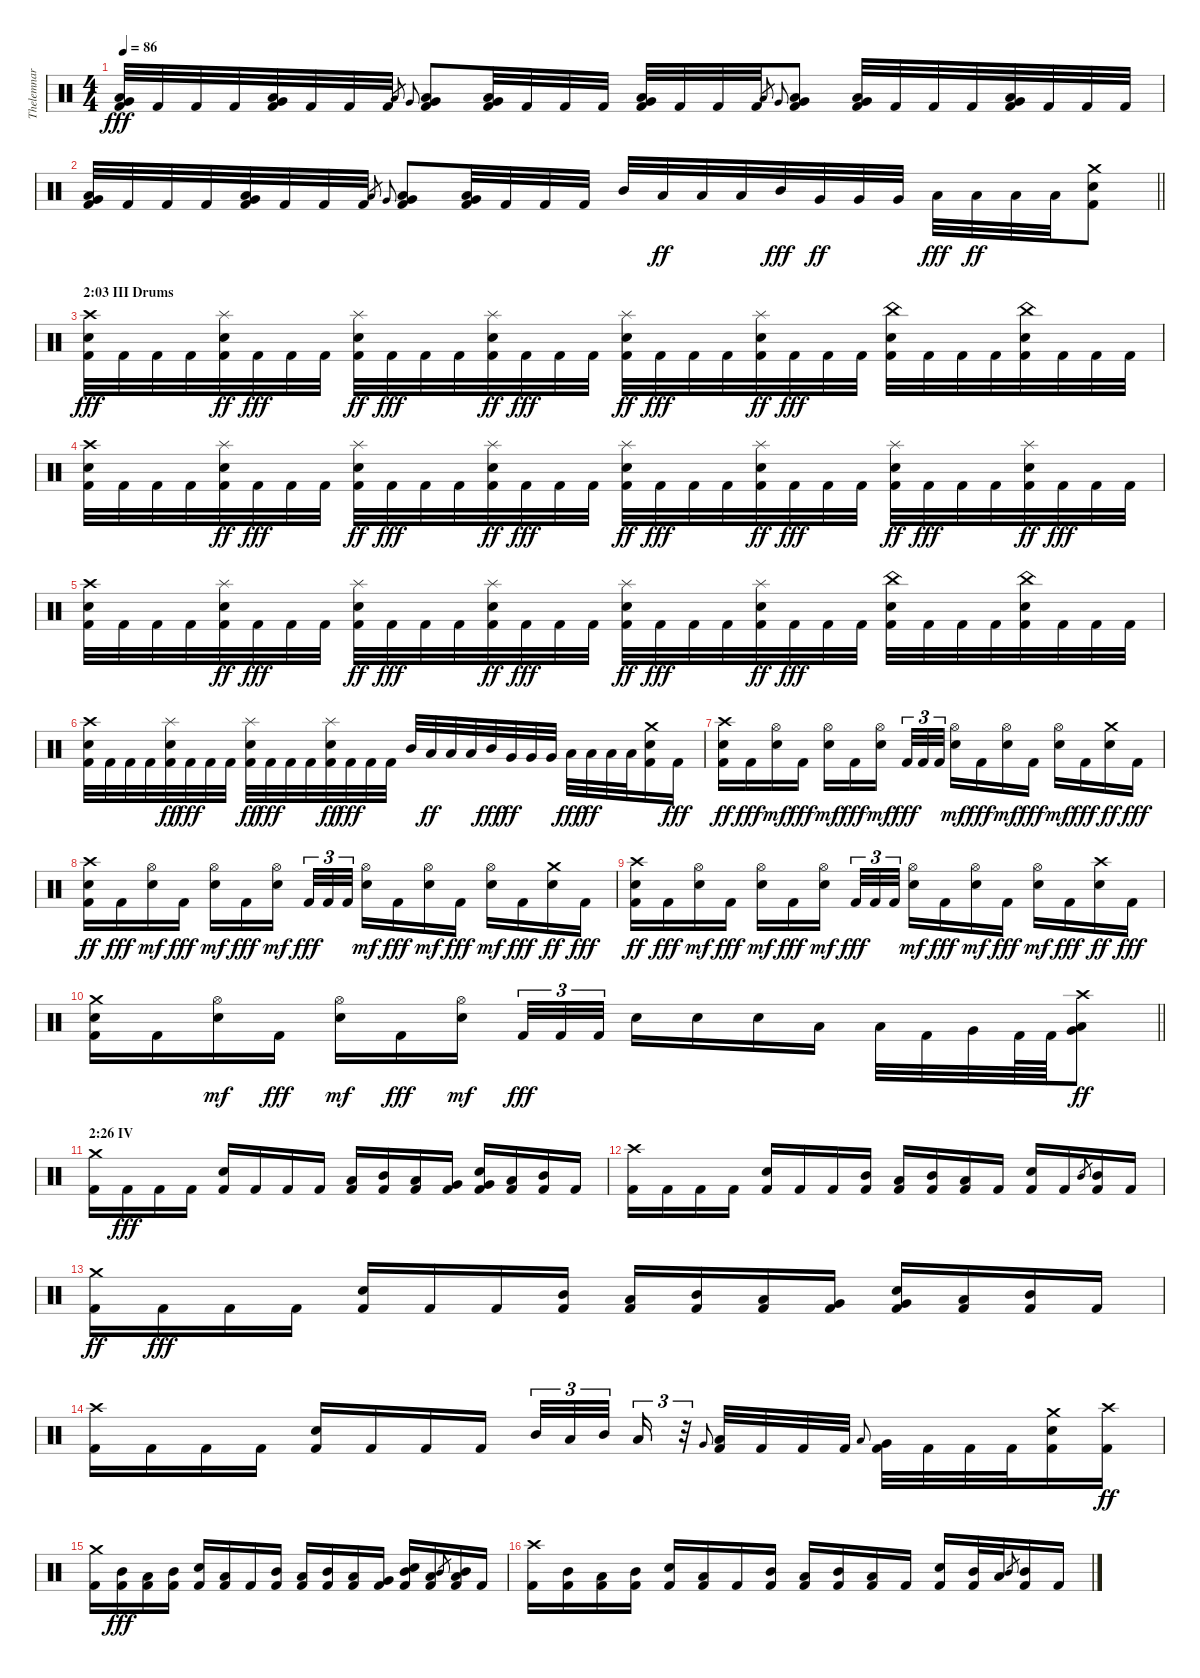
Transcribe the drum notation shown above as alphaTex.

\track ("Thelemnar (Drums)" "Thelemnar ") {instrument percussion}
\staff {score}
\articulation defaults
\ts (4 4)
\tempo 86
\clef neutral
\ks c
("Kick (hit) 2" "Low Floor Tom (hit)" "Very Low Tom (hit)").32{dy fff} "Kick (hit) 2".32 "Kick (hit) 2".32 "Kick (hit) 2".32 ("Kick (hit) 2" "Low Floor Tom (hit)" "Very Low Tom (hit)").32 "Kick (hit) 2".32 "Kick (hit) 2".32 "Kick (hit) 2".32 "Low Tom (hit)".16{gr} "Very Low Tom (hit)".16{gr onbeat} ("Kick (hit) 2" "Low Tom (hit)" "Very Low Tom (hit)").8 ("Kick (hit) 2" "Low Floor Tom (hit)" "Very Low Tom (hit)").32 "Kick (hit) 2".32 "Kick (hit) 2".32 "Kick (hit) 2".32 ("Kick (hit) 2" "Low Floor Tom (hit)" "Very Low Tom (hit)").32 "Kick (hit) 2".32 "Kick (hit) 2".32 "Kick (hit) 2".32 "Low Tom (hit)".16{gr} "Very Low Tom (hit)".16{gr onbeat} ("Kick (hit) 2" "Low Tom (hit)" "Very Low Tom (hit)").8 ("Kick (hit) 2" "Low Floor Tom (hit)" "Very Low Tom (hit)").32 "Kick (hit) 2".32 "Kick (hit) 2".32 "Kick (hit) 2".32 ("Kick (hit) 2" "Low Tom (hit)" "Very Low Tom (hit)").32 "Kick (hit) 2".32 "Kick (hit) 2".32 "Kick (hit) 2".32 |
\barLineRight lightlight
("Kick (hit) 2" "Low Floor Tom (hit)" "Very Low Tom (hit)").32 "Kick (hit) 2".32 "Kick (hit) 2".32 "Kick (hit) 2".32 ("Kick (hit) 2" "Low Floor Tom (hit)" "Very Low Tom (hit)").32 "Kick (hit) 2".32 "Kick (hit) 2".32 "Kick (hit) 2".32 "Low Tom (hit)".16{gr} "Very Low Tom (hit)".16{gr onbeat} ("Kick (hit) 2" "Low Tom (hit)" "Very Low Tom (hit)").8 ("Kick (hit) 2" "Low Floor Tom (hit)" "Very Low Tom (hit)").32 "Kick (hit) 2".32 "Kick (hit) 2".32 "Kick (hit) 2".32 "Mid Tom (hit)".32 "Low Tom (hit)".32{dy ff} "Low Tom (hit)".32 "Low Tom (hit)".32 "Mid Tom (hit)".32{dy fff} "Very Low Tom (hit)".32{dy ff} "Very Low Tom (hit)".32 "Very Low Tom (hit)".32 "Low Tom (hit)".32{dy fff} "Low Floor Tom (hit)".32{dy ff} "Low Floor Tom (hit)".32 "Low Floor Tom (hit)".32 ("Kick (hit) 2" "Electric Snare (hit)" "Crash medium (hit)").8 |
\section ("" "2:03 III Drums")
("Kick (hit) 2" "Electric Snare (hit)" "Crash high (hit)").32{dy fff} "Kick (hit) 2".32 "Kick (hit) 2".32 "Kick (hit) 2".32 ("Kick (hit) 2" "Electric Snare (hit)" "Splash (hit)").32{dy ff} "Kick (hit) 2".32{dy fff} "Kick (hit) 2".32 "Kick (hit) 2".32 ("Kick (hit) 2" "Electric Snare (hit)" "Splash (hit)").32{dy ff} "Kick (hit) 2".32{dy fff} "Kick (hit) 2".32 "Kick (hit) 2".32 ("Kick (hit) 2" "Electric Snare (hit)" "Splash (hit)").32{dy ff} "Kick (hit) 2".32{dy fff} "Kick (hit) 2".32 "Kick (hit) 2".32 ("Kick (hit) 2" "Electric Snare (hit)" "Splash (hit)").32{dy ff} "Kick (hit) 2".32{dy fff} "Kick (hit) 2".32 "Kick (hit) 2".32 ("Kick (hit) 2" "Electric Snare (hit)" "Splash (hit)").32{dy ff} "Kick (hit) 2".32{dy fff} "Kick (hit) 2".32 "Kick (hit) 2".32 ("Kick (hit) 2" "Electric Snare (hit)" "China (hit)").32 "Kick (hit) 2".32 "Kick (hit) 2".32 "Kick (hit) 2".32 ("Kick (hit) 2" "Electric Snare (hit)" "China (hit)").32 "Kick (hit) 2".32 "Kick (hit) 2".32 "Kick (hit) 2".32 |
("Kick (hit) 2" "Electric Snare (hit)" "Crash high (hit)").32 "Kick (hit) 2".32 "Kick (hit) 2".32 "Kick (hit) 2".32 ("Kick (hit) 2" "Electric Snare (hit)" "Splash (hit)").32{dy ff} "Kick (hit) 2".32{dy fff} "Kick (hit) 2".32 "Kick (hit) 2".32 ("Kick (hit) 2" "Electric Snare (hit)" "Splash (hit)").32{dy ff} "Kick (hit) 2".32{dy fff} "Kick (hit) 2".32 "Kick (hit) 2".32 ("Kick (hit) 2" "Electric Snare (hit)" "Splash (hit)").32{dy ff} "Kick (hit) 2".32{dy fff} "Kick (hit) 2".32 "Kick (hit) 2".32 ("Kick (hit) 2" "Electric Snare (hit)" "Splash (hit)").32{dy ff} "Kick (hit) 2".32{dy fff} "Kick (hit) 2".32 "Kick (hit) 2".32 ("Kick (hit) 2" "Electric Snare (hit)" "Splash (hit)").32{dy ff} "Kick (hit) 2".32{dy fff} "Kick (hit) 2".32 "Kick (hit) 2".32 ("Kick (hit) 2" "Electric Snare (hit)" "Splash (hit)").32{dy ff} "Kick (hit) 2".32{dy fff} "Kick (hit) 2".32 "Kick (hit) 2".32 ("Kick (hit) 2" "Electric Snare (hit)" "Splash (hit)").32{dy ff} "Kick (hit) 2".32{dy fff} "Kick (hit) 2".32 "Kick (hit) 2".32 |
("Kick (hit) 2" "Electric Snare (hit)" "Crash high (hit)").32 "Kick (hit) 2".32 "Kick (hit) 2".32 "Kick (hit) 2".32 ("Kick (hit) 2" "Electric Snare (hit)" "Splash (hit)").32{dy ff} "Kick (hit) 2".32{dy fff} "Kick (hit) 2".32 "Kick (hit) 2".32 ("Kick (hit) 2" "Electric Snare (hit)" "Splash (hit)").32{dy ff} "Kick (hit) 2".32{dy fff} "Kick (hit) 2".32 "Kick (hit) 2".32 ("Kick (hit) 2" "Electric Snare (hit)" "Splash (hit)").32{dy ff} "Kick (hit) 2".32{dy fff} "Kick (hit) 2".32 "Kick (hit) 2".32 ("Kick (hit) 2" "Electric Snare (hit)" "Splash (hit)").32{dy ff} "Kick (hit) 2".32{dy fff} "Kick (hit) 2".32 "Kick (hit) 2".32 ("Kick (hit) 2" "Electric Snare (hit)" "Splash (hit)").32{dy ff} "Kick (hit) 2".32{dy fff} "Kick (hit) 2".32 "Kick (hit) 2".32 ("Kick (hit) 2" "Electric Snare (hit)" "China (hit)").32 "Kick (hit) 2".32 "Kick (hit) 2".32 "Kick (hit) 2".32 ("Kick (hit) 2" "Electric Snare (hit)" "China (hit)").32 "Kick (hit) 2".32 "Kick (hit) 2".32 "Kick (hit) 2".32 |
("Kick (hit) 2" "Electric Snare (hit)" "Crash high (hit)").32 "Kick (hit) 2".32 "Kick (hit) 2".32 "Kick (hit) 2".32 ("Kick (hit) 2" "Electric Snare (hit)" "Splash (hit)").32{dy ff} "Kick (hit) 2".32{dy fff} "Kick (hit) 2".32 "Kick (hit) 2".32 ("Kick (hit) 2" "Electric Snare (hit)" "Splash (hit)").32{dy ff} "Kick (hit) 2".32{dy fff} "Kick (hit) 2".32 "Kick (hit) 2".32 ("Kick (hit) 2" "Electric Snare (hit)" "Splash (hit)").32{dy ff} "Kick (hit) 2".32{dy fff} "Kick (hit) 2".32 "Kick (hit) 2".32 "Mid Tom (hit)".32 "Low Tom (hit)".32{dy ff} "Low Tom (hit)".32 "Low Tom (hit)".32 "Mid Tom (hit)".32{dy fff} "Very Low Tom (hit)".32{dy ff} "Very Low Tom (hit)".32 "Very Low Tom (hit)".32 "Low Tom (hit)".32{dy fff} "Low Floor Tom (hit)".32{dy ff} "Low Floor Tom (hit)".32 "Low Floor Tom (hit)".32 ("Kick (hit) 2" "Electric Snare (hit)" "Crash medium (hit)").16 "Kick (hit) 2".16{dy fff} |
("Kick (hit) 2" "Electric Snare (hit)" "Crash high (hit)").16{dy ff} "Kick (hit) 2".16{dy fff} ("Electric Snare (hit)" "Hi-Hat (open)").16{dy mf} "Kick (hit) 2".16{dy fff} ("Electric Snare (hit)" "Hi-Hat (open)").16{dy mf} "Kick (hit) 2".16{dy fff} ("Electric Snare (hit)" "Hi-Hat (open)").16{dy mf beam splitsecondary} "Kick (hit) 2".32{tu (3 2) dy fff} "Kick (hit) 2".32{tu (3 2)} "Kick (hit) 2".32{tu (3 2)} ("Electric Snare (hit)" "Hi-Hat (open)").16{dy mf} "Kick (hit) 2".16{dy fff} ("Electric Snare (hit)" "Hi-Hat (open)").16{dy mf} "Kick (hit) 2".16{dy fff} ("Electric Snare (hit)" "Hi-Hat (open)").16{dy mf} "Kick (hit) 2".16{dy fff} ("Electric Snare (hit)" "Crash medium (hit)").16{dy ff} "Kick (hit) 2".16{dy fff} |
("Kick (hit) 2" "Electric Snare (hit)" "Crash high (hit)").16{dy ff} "Kick (hit) 2".16{dy fff} ("Electric Snare (hit)" "Hi-Hat (open)").16{dy mf} "Kick (hit) 2".16{dy fff} ("Electric Snare (hit)" "Hi-Hat (open)").16{dy mf} "Kick (hit) 2".16{dy fff} ("Electric Snare (hit)" "Hi-Hat (open)").16{dy mf beam splitsecondary} "Kick (hit) 2".32{tu (3 2) dy fff} "Kick (hit) 2".32{tu (3 2)} "Kick (hit) 2".32{tu (3 2)} ("Electric Snare (hit)" "Hi-Hat (open)").16{dy mf} "Kick (hit) 2".16{dy fff} ("Electric Snare (hit)" "Hi-Hat (open)").16{dy mf} "Kick (hit) 2".16{dy fff} ("Electric Snare (hit)" "Hi-Hat (open)").16{dy mf} "Kick (hit) 2".16{dy fff} ("Electric Snare (hit)" "Crash medium (hit)").16{dy ff} "Kick (hit) 2".16{dy fff} |
("Kick (hit) 2" "Electric Snare (hit)" "Crash high (hit)").16{dy ff} "Kick (hit) 2".16{dy fff} ("Electric Snare (hit)" "Hi-Hat (open)").16{dy mf} "Kick (hit) 2".16{dy fff} ("Electric Snare (hit)" "Hi-Hat (open)").16{dy mf} "Kick (hit) 2".16{dy fff} ("Electric Snare (hit)" "Hi-Hat (open)").16{dy mf beam splitsecondary} "Kick (hit) 2".32{tu (3 2) dy fff} "Kick (hit) 2".32{tu (3 2)} "Kick (hit) 2".32{tu (3 2)} ("Electric Snare (hit)" "Hi-Hat (open)").16{dy mf} "Kick (hit) 2".16{dy fff} ("Electric Snare (hit)" "Hi-Hat (open)").16{dy mf} "Kick (hit) 2".16{dy fff} ("Electric Snare (hit)" "Hi-Hat (open)").16{dy mf} "Kick (hit) 2".16{dy fff} ("Electric Snare (hit)" "Crash high (hit)").16{dy ff} "Kick (hit) 2".16{dy fff} |
\barLineRight lightlight
("Kick (hit) 2" "Electric Snare (hit)" "Crash medium (hit)").16 "Kick (hit) 2".16 ("Electric Snare (hit)" "Hi-Hat (open)").16{dy mf} "Kick (hit) 2".16{dy fff} ("Electric Snare (hit)" "Hi-Hat (open)").16{dy mf} "Kick (hit) 2".16{dy fff} ("Electric Snare (hit)" "Hi-Hat (open)").16{dy mf beam splitsecondary} "Kick (hit) 2".32{tu (3 2) dy fff} "Kick (hit) 2".32{tu (3 2)} "Kick (hit) 2".32{tu (3 2)} "Electric Snare (hit)".16 "Electric Snare (hit)".16 "Electric Snare (hit)".16 "Low Tom (hit)".16 "Low Tom (hit)".32 "Kick (hit) 2".32 "Very Low Tom (hit)".32 "Kick (hit) 2".64 "Kick (hit) 2".64 ("Low Floor Tom (hit)" "Very Low Tom (hit)" "Crash high (hit)").8{dy ff} |
\section ("" "2:26 IV")
("Kick (hit) 2" "Crash medium (hit)").16 "Kick (hit) 2".16{dy fff} "Kick (hit) 2".16 "Kick (hit) 2".16 ("Kick (hit) 2" "Electric Snare (hit)").16 "Kick (hit) 2".16 "Kick (hit) 2".16 "Kick (hit) 2".16 ("Kick (hit) 2" "Low Tom (hit)").16 ("Kick (hit) 2" "Mid Tom (hit)").16 ("Kick (hit) 2" "Low Tom (hit)").16 ("Kick (hit) 2" "Very Low Tom (hit)").16 ("Kick (hit) 2" "Very Low Tom (hit)" "Electric Snare (hit)").16 ("Kick (hit) 2" "Low Tom (hit)").16 ("Kick (hit) 2" "Mid Tom (hit)").16 "Kick (hit) 2".16 |
("Kick (hit) 2" "Crash high (hit)").16 "Kick (hit) 2".16 "Kick (hit) 2".16 "Kick (hit) 2".16 ("Kick (hit) 2" "Electric Snare (hit)").16 "Kick (hit) 2".16 "Kick (hit) 2".16 ("Kick (hit) 2" "Mid Tom (hit)").16 ("Kick (hit) 2" "Low Tom (hit)").16 ("Kick (hit) 2" "Mid Tom (hit)").16 ("Kick (hit) 2" "Low Tom (hit)").16 "Kick (hit) 2".16 ("Kick (hit) 2" "Electric Snare (hit)").16 "Kick (hit) 2".16 "Mid Tom (hit)".8{gr} ("Kick (hit) 2" "Mid Tom (hit)").16 "Kick (hit) 2".16 |
("Kick (hit) 2" "Crash medium (hit)").16{dy ff} "Kick (hit) 2".16{dy fff} "Kick (hit) 2".16 "Kick (hit) 2".16 ("Kick (hit) 2" "Electric Snare (hit)").16 "Kick (hit) 2".16 "Kick (hit) 2".16 ("Kick (hit) 2" "Mid Tom (hit)").16 ("Kick (hit) 2" "Low Tom (hit)").16 ("Kick (hit) 2" "Mid Tom (hit)").16 ("Kick (hit) 2" "Low Tom (hit)").16 ("Kick (hit) 2" "Very Low Tom (hit)").16 ("Kick (hit) 2" "Very Low Tom (hit)" "Electric Snare (hit)").16 ("Kick (hit) 2" "Low Tom (hit)").16 ("Kick (hit) 2" "Mid Tom (hit)").16 "Kick (hit) 2".16 |
("Kick (hit) 2" "Crash high (hit)").16 "Kick (hit) 2".16 "Kick (hit) 2".16 "Kick (hit) 2".16 ("Kick (hit) 2" "Electric Snare (hit)").16 "Kick (hit) 2".16 "Kick (hit) 2".16 "Kick (hit) 2".16 "Mid Tom (hit)".32{tu (3 2)} "Low Tom (hit)".32{tu (3 2)} "Mid Tom (hit)".32{tu (3 2) beam splitsecondary} "Low Tom (hit)".16{tu (3 2)} r.32{tu (3 2)} "Very Low Tom (hit)".8{gr onbeat} ("Kick (hit) 2" "Low Tom (hit)").32 "Kick (hit) 2".32 "Kick (hit) 2".32 "Kick (hit) 2".32 "Low Tom (hit)".8{gr onbeat} ("Kick (hit) 2" "Very Low Tom (hit)").32 "Kick (hit) 2".32 "Kick (hit) 2".32 "Kick (hit) 2".32 ("Kick (hit) 2" "Electric Snare (hit)" "Crash medium (hit)").16 ("Kick (hit) 2" "Crash high (hit)").16{dy ff} |
("Kick (hit) 2" "Crash medium (hit)").16 ("Kick (hit) 2" "Mid Tom (hit)").16{dy fff} ("Kick (hit) 2" "Low Tom (hit)").16 ("Kick (hit) 2" "Mid Tom (hit)").16 ("Kick (hit) 2" "Electric Snare (hit)").16 ("Kick (hit) 2" "Low Tom (hit)").16 "Kick (hit) 2".16 ("Kick (hit) 2" "Mid Tom (hit)").16 ("Kick (hit) 2" "Low Tom (hit)").16 ("Kick (hit) 2" "Mid Tom (hit)").16 ("Kick (hit) 2" "Low Tom (hit)").16 ("Kick (hit) 2" "Very Low Tom (hit)").16 ("Kick (hit) 2" "Mid Tom (hit)" "Electric Snare (hit)").16 ("Kick (hit) 2" "Low Tom (hit)").16 "Mid Tom (hit)".8{gr} ("Kick (hit) 2" "Mid Tom (hit)" "Low Tom (hit)").16 "Kick (hit) 2".16 |
("Kick (hit) 2" "Crash high (hit)").16 ("Kick (hit) 2" "Mid Tom (hit)").16 ("Kick (hit) 2" "Low Tom (hit)").16 ("Kick (hit) 2" "Mid Tom (hit)").16 ("Kick (hit) 2" "Electric Snare (hit)").16 ("Kick (hit) 2" "Low Tom (hit)").16 "Kick (hit) 2".16 ("Kick (hit) 2" "Mid Tom (hit)").16 ("Kick (hit) 2" "Low Tom (hit)").16 ("Kick (hit) 2" "Mid Tom (hit)").16 ("Kick (hit) 2" "Low Tom (hit)").16 "Kick (hit) 2".16 ("Kick (hit) 2" "Electric Snare (hit)").16 ("Kick (hit) 2" "Mid Tom (hit)").32 "Low Tom (hit)".32 "Mid Tom (hit)".8{gr} ("Kick (hit) 2" "Mid Tom (hit)").16 "Kick (hit) 2".16
